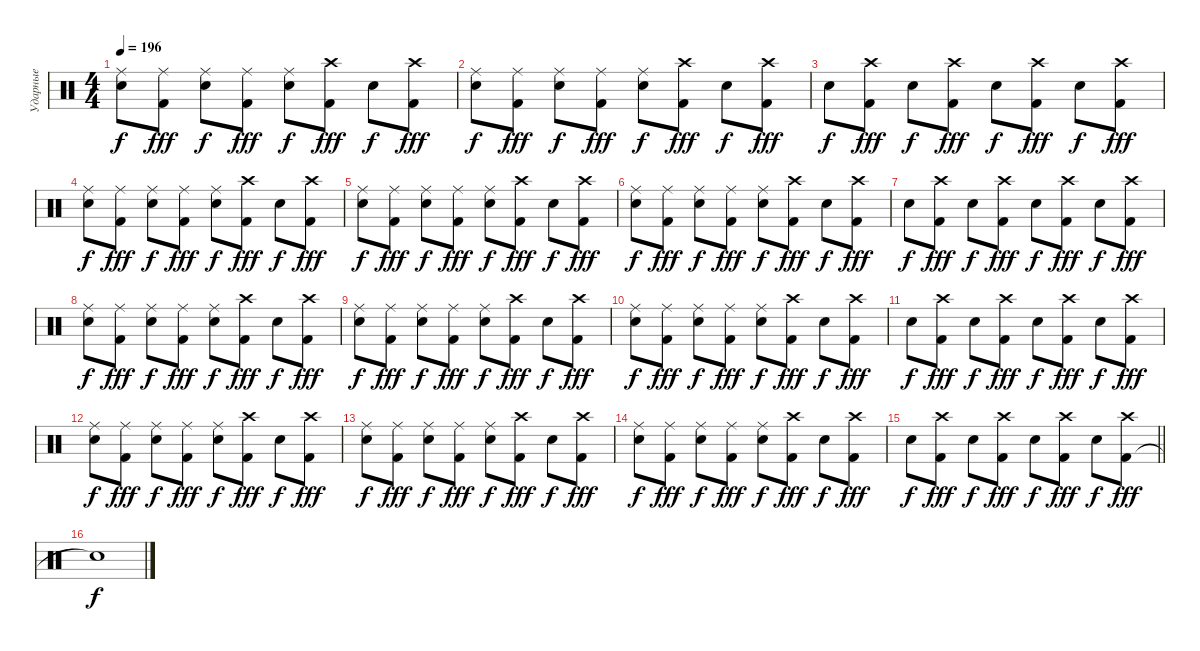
\track ("Ударные" "Ударные") {instrument percussion}
\staff {score}
\articulation defaults
\ts (4 4)
\tempo 196
\clef neutral
\ks c
("Snare (hit) 2" "Ride (middle)").8{dy f} ("Kick (hit) 2" "Ride (middle)").8{dy fff} ("Snare (hit) 2" "Ride (middle)").8{dy f} ("Kick (hit) 2" "Ride (middle)").8{dy fff} ("Snare (hit) 2" "Ride (middle)").8{dy f} ("Kick (hit) 2" "Crash high (hit)").8{dy fff} "Snare (hit) 2".8{dy f} ("Kick (hit) 2" "Crash high (hit)").8{dy fff} |
("Snare (hit) 2" "Ride (middle)").8{dy f} ("Kick (hit) 2" "Ride (middle)").8{dy fff} ("Snare (hit) 2" "Ride (middle)").8{dy f} ("Kick (hit) 2" "Ride (middle)").8{dy fff} ("Snare (hit) 2" "Ride (middle)").8{dy f} ("Kick (hit) 2" "Crash high (hit)").8{dy fff} "Snare (hit) 2".8{dy f} ("Kick (hit) 2" "Crash high (hit)").8{dy fff} |
"Snare (hit) 2".8{dy f} ("Kick (hit) 2" "Crash high (hit)").8{dy fff} "Snare (hit) 2".8{dy f} ("Kick (hit) 2" "Crash high (hit)").8{dy fff} "Snare (hit) 2".8{dy f} ("Kick (hit) 2" "Crash high (hit)").8{dy fff} "Snare (hit) 2".8{dy f} ("Kick (hit) 2" "Crash high (hit)").8{dy fff} |
("Snare (hit) 2" "Ride (middle)").8{dy f} ("Kick (hit) 2" "Ride (middle)").8{dy fff} ("Snare (hit) 2" "Ride (middle)").8{dy f} ("Kick (hit) 2" "Ride (middle)").8{dy fff} ("Snare (hit) 2" "Ride (middle)").8{dy f} ("Kick (hit) 2" "Crash high (hit)").8{dy fff} "Snare (hit) 2".8{dy f} ("Kick (hit) 2" "Crash high (hit)").8{dy fff} |
("Snare (hit) 2" "Ride (middle)").8{dy f} ("Kick (hit) 2" "Ride (middle)").8{dy fff} ("Snare (hit) 2" "Ride (middle)").8{dy f} ("Kick (hit) 2" "Ride (middle)").8{dy fff} ("Snare (hit) 2" "Ride (middle)").8{dy f} ("Kick (hit) 2" "Crash high (hit)").8{dy fff} "Snare (hit) 2".8{dy f} ("Kick (hit) 2" "Crash high (hit)").8{dy fff} |
("Snare (hit) 2" "Ride (middle)").8{dy f} ("Kick (hit) 2" "Ride (middle)").8{dy fff} ("Snare (hit) 2" "Ride (middle)").8{dy f} ("Kick (hit) 2" "Ride (middle)").8{dy fff} ("Snare (hit) 2" "Ride (middle)").8{dy f} ("Kick (hit) 2" "Crash high (hit)").8{dy fff} "Snare (hit) 2".8{dy f} ("Kick (hit) 2" "Crash high (hit)").8{dy fff} |
"Snare (hit) 2".8{dy f} ("Kick (hit) 2" "Crash high (hit)").8{dy fff} "Snare (hit) 2".8{dy f} ("Kick (hit) 2" "Crash high (hit)").8{dy fff} "Snare (hit) 2".8{dy f} ("Kick (hit) 2" "Crash high (hit)").8{dy fff} "Snare (hit) 2".8{dy f} ("Kick (hit) 2" "Crash high (hit)").8{dy fff} |
("Snare (hit) 2" "Ride (middle)").8{dy f} ("Kick (hit) 2" "Ride (middle)").8{dy fff} ("Snare (hit) 2" "Ride (middle)").8{dy f} ("Kick (hit) 2" "Ride (middle)").8{dy fff} ("Snare (hit) 2" "Ride (middle)").8{dy f} ("Kick (hit) 2" "Crash high (hit)").8{dy fff} "Snare (hit) 2".8{dy f} ("Kick (hit) 2" "Crash high (hit)").8{dy fff} |
("Snare (hit) 2" "Ride (middle)").8{dy f} ("Kick (hit) 2" "Ride (middle)").8{dy fff} ("Snare (hit) 2" "Ride (middle)").8{dy f} ("Kick (hit) 2" "Ride (middle)").8{dy fff} ("Snare (hit) 2" "Ride (middle)").8{dy f} ("Kick (hit) 2" "Crash high (hit)").8{dy fff} "Snare (hit) 2".8{dy f} ("Kick (hit) 2" "Crash high (hit)").8{dy fff} |
("Snare (hit) 2" "Ride (middle)").8{dy f} ("Kick (hit) 2" "Ride (middle)").8{dy fff} ("Snare (hit) 2" "Ride (middle)").8{dy f} ("Kick (hit) 2" "Ride (middle)").8{dy fff} ("Snare (hit) 2" "Ride (middle)").8{dy f} ("Kick (hit) 2" "Crash high (hit)").8{dy fff} "Snare (hit) 2".8{dy f} ("Kick (hit) 2" "Crash high (hit)").8{dy fff} |
"Snare (hit) 2".8{dy f} ("Kick (hit) 2" "Crash high (hit)").8{dy fff} "Snare (hit) 2".8{dy f} ("Kick (hit) 2" "Crash high (hit)").8{dy fff} "Snare (hit) 2".8{dy f} ("Kick (hit) 2" "Crash high (hit)").8{dy fff} "Snare (hit) 2".8{dy f} ("Kick (hit) 2" "Crash high (hit)").8{dy fff} |
("Snare (hit) 2" "Ride (middle)").8{dy f} ("Kick (hit) 2" "Ride (middle)").8{dy fff} ("Snare (hit) 2" "Ride (middle)").8{dy f} ("Kick (hit) 2" "Ride (middle)").8{dy fff} ("Snare (hit) 2" "Ride (middle)").8{dy f} ("Kick (hit) 2" "Crash high (hit)").8{dy fff} "Snare (hit) 2".8{dy f} ("Kick (hit) 2" "Crash high (hit)").8{dy fff} |
("Snare (hit) 2" "Ride (middle)").8{dy f} ("Kick (hit) 2" "Ride (middle)").8{dy fff} ("Snare (hit) 2" "Ride (middle)").8{dy f} ("Kick (hit) 2" "Ride (middle)").8{dy fff} ("Snare (hit) 2" "Ride (middle)").8{dy f} ("Kick (hit) 2" "Crash high (hit)").8{dy fff} "Snare (hit) 2".8{dy f} ("Kick (hit) 2" "Crash high (hit)").8{dy fff} |
("Snare (hit) 2" "Ride (middle)").8{dy f} ("Kick (hit) 2" "Ride (middle)").8{dy fff} ("Snare (hit) 2" "Ride (middle)").8{dy f} ("Kick (hit) 2" "Ride (middle)").8{dy fff} ("Snare (hit) 2" "Ride (middle)").8{dy f} ("Kick (hit) 2" "Crash high (hit)").8{dy fff} "Snare (hit) 2".8{dy f} ("Kick (hit) 2" "Crash high (hit)").8{dy fff} |
\barLineRight lightlight "Snare (hit) 2".8{dy f}
("Kick (hit) 2" "Crash high (hit)").8{dy fff} "Snare (hit) 2".8{dy f} ("Kick (hit) 2" "Crash high (hit)").8{dy fff} "Snare (hit) 2".8{dy f} ("Kick (hit) 2" "Crash high (hit)").8{dy fff} "Snare (hit) 2".8{dy f} ("Kick (hit) 2" "Crash high (hit)").8{dy fff} |
"Snare (hit) 2"{t}.1{dy f}
